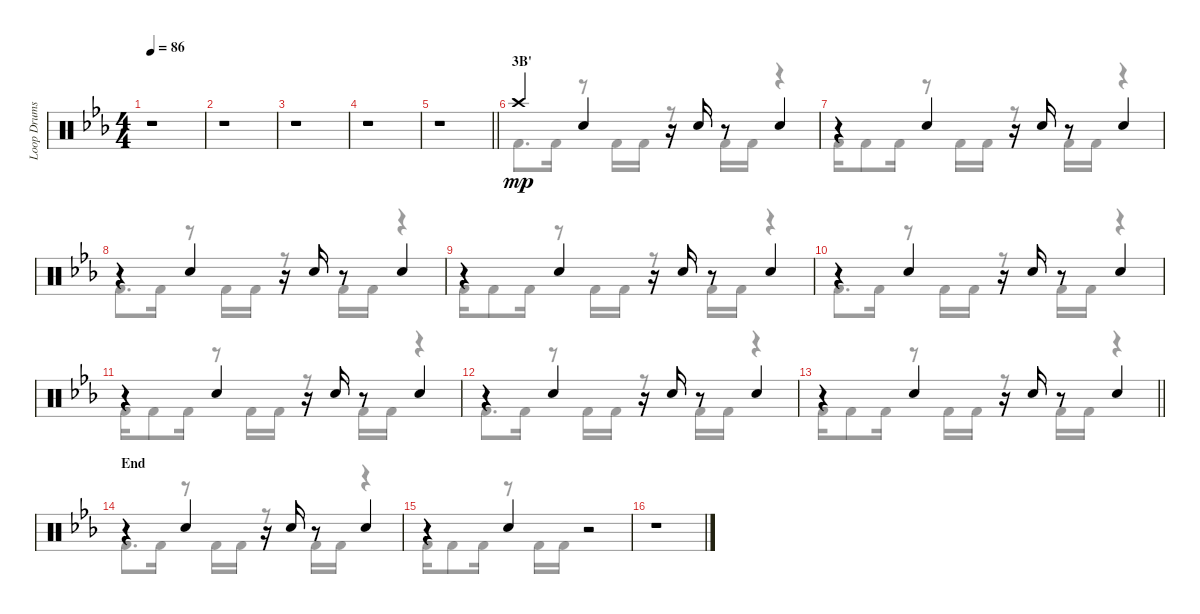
\track ("Loop Drums I" "Loop Drums") {instrument percussion}
\staff {score}
\articulation defaults
\voice
\ts (4 4)
\tempo 86
\clef neutral
\ks eb
r.1{dy mp} |
r.1 |
r.1 |
r.1 |
\barLineRight lightlight
r.1 |
\section ("" "3B'")
"Crash high (hit)".4 "Electric Snare (hit)".4 r.16 "Electric Snare (hit)".16 r.8 "Electric Snare (hit)".4 |
r.4 "Electric Snare (hit)".4 r.16 "Electric Snare (hit)".16 r.8 "Electric Snare (hit)".4 |
r.4 "Electric Snare (hit)".4 r.16 "Electric Snare (hit)".16 r.8 "Electric Snare (hit)".4 |
r.4 "Electric Snare (hit)".4 r.16 "Electric Snare (hit)".16 r.8 "Electric Snare (hit)".4 |
r.4 "Electric Snare (hit)".4 r.16 "Electric Snare (hit)".16 r.8 "Electric Snare (hit)".4 |
r.4 "Electric Snare (hit)".4 r.16 "Electric Snare (hit)".16 r.8 "Electric Snare (hit)".4 |
r.4 "Electric Snare (hit)".4 r.16 "Electric Snare (hit)".16 r.8 "Electric Snare (hit)".4 |
\barLineRight lightlight
r.4 "Electric Snare (hit)".4 r.16 "Electric Snare (hit)".16 r.8 "Electric Snare (hit)".4 |
\section ("" "End")
r.4 "Electric Snare (hit)".4 r.16 "Electric Snare (hit)".16 r.8 "Electric Snare (hit)".4 |
r.4 "Electric Snare (hit)".4 r.2 |
r.1
\voice
\clef neutral
\ottava regular
\simile none
\ks eb
r.1{dy mp} |
r.1 |
r.1 |
r.1 |
\barLineRight lightlight
r.1 |
"Kick (hit) 2".8{d} "Kick (hit) 2".16 r.8 "Kick (hit) 2".16 "Kick (hit) 2".16 r.8 "Kick (hit) 2".16 "Kick (hit) 2".16 r.4 |
"Kick (hit) 2".16 "Kick (hit) 2".8 "Kick (hit) 2".16 r.8 "Kick (hit) 2".16 "Kick (hit) 2".16 r.8 "Kick (hit) 2".16 "Kick (hit) 2".16 r.4 |
"Kick (hit) 2".8{d} "Kick (hit) 2".16 r.8 "Kick (hit) 2".16 "Kick (hit) 2".16 r.8 "Kick (hit) 2".16 "Kick (hit) 2".16 r.4 |
"Kick (hit) 2".16 "Kick (hit) 2".8 "Kick (hit) 2".16 r.8 "Kick (hit) 2".16 "Kick (hit) 2".16 r.8 "Kick (hit) 2".16 "Kick (hit) 2".16 r.4 |
"Kick (hit) 2".8{d} "Kick (hit) 2".16 r.8 "Kick (hit) 2".16 "Kick (hit) 2".16 r.8 "Kick (hit) 2".16 "Kick (hit) 2".16 r.4 |
"Kick (hit) 2".16 "Kick (hit) 2".8 "Kick (hit) 2".16 r.8 "Kick (hit) 2".16 "Kick (hit) 2".16 r.8 "Kick (hit) 2".16 "Kick (hit) 2".16 r.4 |
"Kick (hit) 2".8{d} "Kick (hit) 2".16 r.8 "Kick (hit) 2".16 "Kick (hit) 2".16 r.8 "Kick (hit) 2".16 "Kick (hit) 2".16 r.4 |
\barLineRight lightlight "Kick (hit) 2".16 "Kick (hit) 2".8 "Kick (hit) 2".16
r.8 "Kick (hit) 2".16 "Kick (hit) 2".16 r.8 "Kick (hit) 2".16 "Kick (hit) 2".16 r.4 |
"Kick (hit) 2".8{d} "Kick (hit) 2".16 r.8 "Kick (hit) 2".16 "Kick (hit) 2".16 r.8 "Kick (hit) 2".16 "Kick (hit) 2".16 r.4 |
"Kick (hit) 2".16 "Kick (hit) 2".8 "Kick (hit) 2".16 r.8 "Kick (hit) 2".16 "Kick (hit) 2".16 r.2 |
r.1
